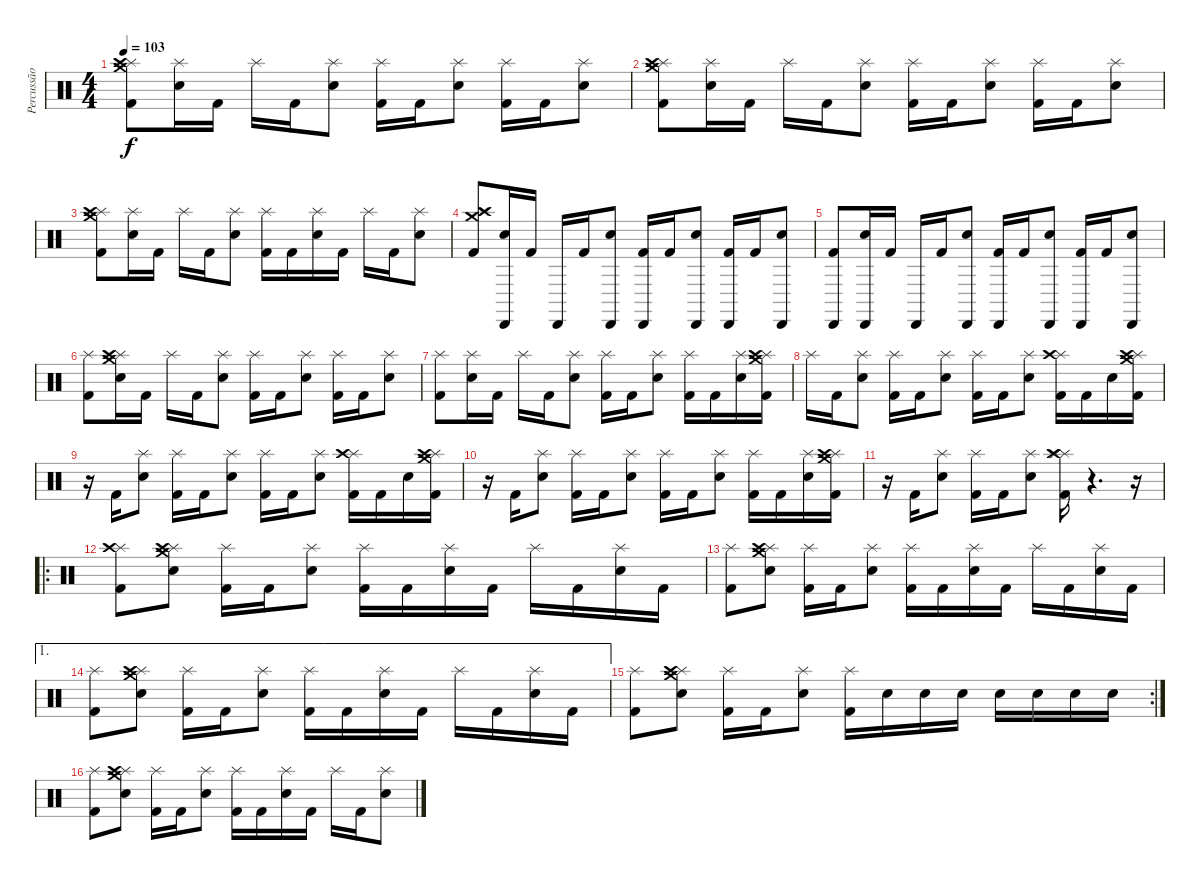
\track ("Percussão" "Percussão") {instrument percussion}
\staff {score}
\articulation defaults
\ts (4 4)
\tempo 103
\clef neutral
\ks c
("Crash medium (hit)" "Splash (hit)" "Crash high (hit)" "Kick (hit) 2").8{dy f} ("Splash (hit)" "Electric Snare (hit)").16 "Kick (hit) 2".16 "Splash (hit)".16 "Kick (hit) 2".16 ("Splash (hit)" "Electric Snare (hit)").8 ("Splash (hit)" "Kick (hit) 2").16 "Kick (hit) 2".16 ("Splash (hit)" "Electric Snare (hit)").8 ("Splash (hit)" "Kick (hit) 2").16 "Kick (hit) 2".16 ("Splash (hit)" "Electric Snare (hit)").8 |
("Crash medium (hit)" "Splash (hit)" "Crash high (hit)" "Kick (hit) 2").8 ("Splash (hit)" "Electric Snare (hit)").16 "Kick (hit) 2".16 "Splash (hit)".16 "Kick (hit) 2".16 ("Splash (hit)" "Electric Snare (hit)").8 ("Splash (hit)" "Kick (hit) 2").16 "Kick (hit) 2".16 ("Splash (hit)" "Electric Snare (hit)").8 ("Splash (hit)" "Kick (hit) 2").16 "Kick (hit) 2".16 ("Splash (hit)" "Electric Snare (hit)").8 |
("Crash medium (hit)" "Splash (hit)" "Crash high (hit)" "Kick (hit) 2").8 ("Splash (hit)" "Electric Snare (hit)").16 "Kick (hit) 2".16 "Splash (hit)".16 "Kick (hit) 2".16 ("Splash (hit)" "Electric Snare (hit)").8 ("Splash (hit)" "Kick (hit) 2").16 "Kick (hit) 2".16 ("Splash (hit)" "Electric Snare (hit)").16 "Kick (hit) 2".16 "Splash (hit)".16 "Kick (hit) 2".16 ("Splash (hit)" "Electric Snare (hit)").8 |
("Crash medium (hit)" "Splash (hit)" "Crash high (hit)" "Kick (hit) 2").8 ("Cabasa (hit)" "Electric Snare (hit)").16 "Kick (hit) 2".16 "Cabasa (hit)".16 "Kick (hit) 2".16 ("Cabasa (hit)" "Electric Snare (hit)").8 ("Cabasa (hit)" "Kick (hit) 2").16 "Kick (hit) 2".16 ("Cabasa (hit)" "Electric Snare (hit)").8 ("Cabasa (hit)" "Kick (hit) 2").16 "Kick (hit) 2".16 ("Cabasa (hit)" "Electric Snare (hit)").8 |
("Cabasa (hit)" "Kick (hit) 2").8 ("Cabasa (hit)" "Electric Snare (hit)").16 "Kick (hit) 2".16 "Cabasa (hit)".16 "Kick (hit) 2".16 ("Cabasa (hit)" "Electric Snare (hit)").8 ("Cabasa (hit)" "Kick (hit) 2").16 "Kick (hit) 2".16 ("Cabasa (hit)" "Electric Snare (hit)").8 ("Cabasa (hit)" "Kick (hit) 2").16 "Kick (hit) 2".16 ("Cabasa (hit)" "Electric Snare (hit)").8 |
("Splash (hit)" "Kick (hit) 2").8 ("Crash medium (hit)" "Splash (hit)" "Crash high (hit)" "Electric Snare (hit)").16 "Kick (hit) 2".16 "Splash (hit)".16 "Kick (hit) 2".16 ("Splash (hit)" "Electric Snare (hit)").8 ("Splash (hit)" "Kick (hit) 2").16 "Kick (hit) 2".16 ("Splash (hit)" "Electric Snare (hit)").8 ("Splash (hit)" "Kick (hit) 2").16 "Kick (hit) 2".16 ("Splash (hit)" "Electric Snare (hit)").8 |
("Splash (hit)" "Kick (hit) 2").8 ("Splash (hit)" "Electric Snare (hit)").16 "Kick (hit) 2".16 "Splash (hit)".16 "Kick (hit) 2".16 ("Splash (hit)" "Electric Snare (hit)").8 ("Splash (hit)" "Kick (hit) 2").16 "Kick (hit) 2".16 ("Splash (hit)" "Electric Snare (hit)").8 ("Splash (hit)" "Kick (hit) 2").16 "Kick (hit) 2".16 ("Splash (hit)" "Electric Snare (hit)").16 ("Crash medium (hit)" "Splash (hit)" "Crash high (hit)" "Kick (hit) 2").16 |
"Splash (hit)".16 "Kick (hit) 2".16 ("Splash (hit)" "Electric Snare (hit)").8 ("Splash (hit)" "Kick (hit) 2").16 "Kick (hit) 2".16 ("Splash (hit)" "Electric Snare (hit)").8 ("Splash (hit)" "Kick (hit) 2").16 "Kick (hit) 2".16 ("Splash (hit)" "Electric Snare (hit)").8 ("Splash (hit)" "Crash high (hit)" "Kick (hit) 2").16 "Kick (hit) 2".16 "Electric Snare (hit)".16 ("Crash medium (hit)" "Splash (hit)" "Crash high (hit)" "Kick (hit) 2").16 |
r.16 "Kick (hit) 2".16 ("Splash (hit)" "Electric Snare (hit)").8 ("Splash (hit)" "Kick (hit) 2").16 "Kick (hit) 2".16 ("Splash (hit)" "Electric Snare (hit)").8 ("Splash (hit)" "Kick (hit) 2").16 "Kick (hit) 2".16 ("Splash (hit)" "Electric Snare (hit)").8 ("Splash (hit)" "Crash high (hit)" "Kick (hit) 2").16 "Kick (hit) 2".16 "Electric Snare (hit)".16 ("Crash medium (hit)" "Splash (hit)" "Crash high (hit)" "Kick (hit) 2").16 |
r.16 "Kick (hit) 2".16 ("Splash (hit)" "Electric Snare (hit)").8 ("Splash (hit)" "Kick (hit) 2").16 "Kick (hit) 2".16 ("Splash (hit)" "Electric Snare (hit)").8 ("Splash (hit)" "Kick (hit) 2").16 "Kick (hit) 2".16 ("Splash (hit)" "Electric Snare (hit)").8 ("Splash (hit)" "Kick (hit) 2").16 "Kick (hit) 2".16 ("Splash (hit)" "Electric Snare (hit)").16 ("Crash medium (hit)" "Splash (hit)" "Crash high (hit)" "Kick (hit) 2").16 |
r.16 "Kick (hit) 2".16 ("Splash (hit)" "Electric Snare (hit)").8 ("Splash (hit)" "Kick (hit) 2").16 "Kick (hit) 2".16 ("Splash (hit)" "Electric Snare (hit)").8 ("Splash (hit)" "Splash (hit)" "Crash high (hit)" "Kick (hit) 2").16 r.4{d} r.16 |
\ro
("Splash (hit)" "Crash high (hit)" "Kick (hit) 2").8 ("Crash medium (hit)" "Splash (hit)" "Crash high (hit)" "Electric Snare (hit)").8 ("Splash (hit)" "Kick (hit) 2").16 "Kick (hit) 2".16 ("Splash (hit)" "Electric Snare (hit)").8 ("Splash (hit)" "Kick (hit) 2").16 "Kick (hit) 2".16 ("Splash (hit)" "Electric Snare (hit)").16 "Kick (hit) 2".16 "Splash (hit)".16 "Kick (hit) 2".16 ("Splash (hit)" "Electric Snare (hit)").16 "Kick (hit) 2".16 |
("Splash (hit)" "Kick (hit) 2").8 ("Crash medium (hit)" "Splash (hit)" "Crash high (hit)" "Electric Snare (hit)").8 ("Splash (hit)" "Kick (hit) 2").16 "Kick (hit) 2".16 ("Splash (hit)" "Electric Snare (hit)").8 ("Splash (hit)" "Kick (hit) 2").16 "Kick (hit) 2".16 ("Splash (hit)" "Electric Snare (hit)").16 "Kick (hit) 2".16 "Splash (hit)".16 "Kick (hit) 2".16 ("Splash (hit)" "Electric Snare (hit)").16 "Kick (hit) 2".16 |
\ae 1
("Splash (hit)" "Kick (hit) 2").8 ("Crash medium (hit)" "Splash (hit)" "Crash high (hit)" "Electric Snare (hit)").8 ("Splash (hit)" "Kick (hit) 2").16 "Kick (hit) 2".16 ("Splash (hit)" "Electric Snare (hit)").8 ("Splash (hit)" "Kick (hit) 2").16 "Kick (hit) 2".16 ("Splash (hit)" "Electric Snare (hit)").16 "Kick (hit) 2".16 "Splash (hit)".16 "Kick (hit) 2".16 ("Splash (hit)" "Electric Snare (hit)").16 "Kick (hit) 2".16 |
\rc 2
("Splash (hit)" "Kick (hit) 2").8 ("Crash medium (hit)" "Splash (hit)" "Crash high (hit)" "Electric Snare (hit)").8 ("Splash (hit)" "Kick (hit) 2").16 "Kick (hit) 2".16 ("Splash (hit)" "Electric Snare (hit)").8 ("Splash (hit)" "Kick (hit) 2").16 "Electric Snare (hit)".16 "Electric Snare (hit)".16 "Electric Snare (hit)".16 "Electric Snare (hit)".16 "Electric Snare (hit)".16 "Electric Snare (hit)".16 "Electric Snare (hit)".16 |
("Splash (hit)" "Kick (hit) 2").8 ("Crash medium (hit)" "Splash (hit)" "Crash high (hit)" "Electric Snare (hit)").8 ("Splash (hit)" "Kick (hit) 2").16 "Kick (hit) 2".16 ("Splash (hit)" "Electric Snare (hit)").8 ("Splash (hit)" "Kick (hit) 2").16 "Kick (hit) 2".16 ("Splash (hit)" "Electric Snare (hit)").16 "Kick (hit) 2".16 "Splash (hit)".16 "Kick (hit) 2".16 ("Splash (hit)" "Electric Snare (hit)").8
